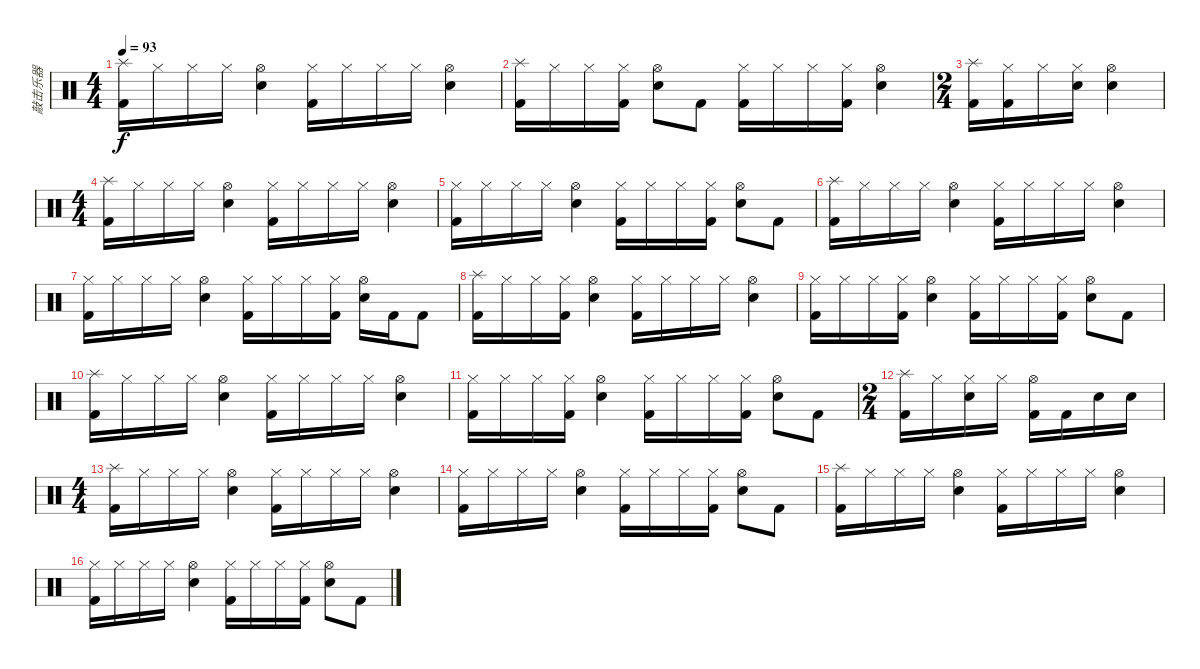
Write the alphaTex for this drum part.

\track ("敲击乐器" "敲击乐器") {instrument percussion}
\staff {score}
\articulation defaults
\ts (4 4)
\tempo 93
\clef neutral
\ks c
("Splash (hit)" "Kick (hit) 2").16{dy f} "Hi-Hat (closed)".16 "Hi-Hat (closed)".16 "Hi-Hat (closed)".16 ("Hi-Hat (open)" "Metronome (bell)").4 ("Hi-Hat (closed)" "Kick (hit) 2").16 "Hi-Hat (closed)".16 "Hi-Hat (closed)".16 "Hi-Hat (closed)".16 ("Hi-Hat (open)" "Metronome (bell)").4 |
("Splash (hit)" "Kick (hit) 2").16 "Hi-Hat (closed)".16 "Hi-Hat (closed)".16 ("Hi-Hat (closed)" "Kick (hit) 2").16 ("Hi-Hat (open)" "Metronome (bell)").8 "Kick (hit) 2".8 ("Hi-Hat (closed)" "Kick (hit) 2").16 "Hi-Hat (closed)".16 "Hi-Hat (closed)".16 ("Hi-Hat (closed)" "Kick (hit) 2").16 ("Hi-Hat (open)" "Metronome (bell)").4 |
\ts (2 4)
("Splash (hit)" "Kick (hit) 2").16 ("Hi-Hat (closed)" "Kick (hit) 2").16 "Hi-Hat (closed)".16 ("Hi-Hat (closed)" "Metronome (bell)").16 ("Hi-Hat (open)" "Metronome (bell)").4 |
\ts (4 4)
("Splash (hit)" "Kick (hit) 2").16 "Hi-Hat (closed)".16 "Hi-Hat (closed)".16 "Hi-Hat (closed)".16 ("Hi-Hat (open)" "Metronome (bell)").4 ("Hi-Hat (closed)" "Kick (hit) 2").16 "Hi-Hat (closed)".16 "Hi-Hat (closed)".16 "Hi-Hat (closed)".16 ("Hi-Hat (open)" "Metronome (bell)").4 |
("Hi-Hat (closed)" "Kick (hit) 2").16 "Hi-Hat (closed)".16 "Hi-Hat (closed)".16 "Hi-Hat (closed)".16 ("Hi-Hat (open)" "Metronome (bell)").4 ("Hi-Hat (closed)" "Kick (hit) 2").16 "Hi-Hat (closed)".16 "Hi-Hat (closed)".16 ("Hi-Hat (closed)" "Kick (hit) 2").16 ("Hi-Hat (open)" "Metronome (bell)").8 "Kick (hit) 2".8 |
("Splash (hit)" "Kick (hit) 2").16 "Hi-Hat (closed)".16 "Hi-Hat (closed)".16 "Hi-Hat (closed)".16 ("Hi-Hat (open)" "Metronome (bell)").4 ("Hi-Hat (closed)" "Kick (hit) 2").16 "Hi-Hat (closed)".16 "Hi-Hat (closed)".16 "Hi-Hat (closed)".16 ("Hi-Hat (open)" "Metronome (bell)").4 |
("Hi-Hat (closed)" "Kick (hit) 2").16 "Hi-Hat (closed)".16 "Hi-Hat (closed)".16 "Hi-Hat (closed)".16 ("Hi-Hat (open)" "Metronome (bell)").4 ("Hi-Hat (closed)" "Kick (hit) 2").16 "Hi-Hat (closed)".16 "Hi-Hat (closed)".16 ("Hi-Hat (closed)" "Kick (hit) 2").16 ("Hi-Hat (open)" "Metronome (bell)").16 "Kick (hit) 2".16 "Kick (hit) 2".8 |
("Splash (hit)" "Kick (hit) 2").16 "Hi-Hat (closed)".16 "Hi-Hat (closed)".16 ("Hi-Hat (closed)" "Kick (hit) 2").16 ("Hi-Hat (open)" "Metronome (bell)").4 ("Hi-Hat (closed)" "Kick (hit) 2").16 "Hi-Hat (closed)".16 "Hi-Hat (closed)".16 "Hi-Hat (closed)".16 ("Hi-Hat (open)" "Metronome (bell)").4 |
("Hi-Hat (closed)" "Kick (hit) 2").16 "Hi-Hat (closed)".16 "Hi-Hat (closed)".16 ("Hi-Hat (closed)" "Kick (hit) 2").16 ("Hi-Hat (open)" "Metronome (bell)").4 ("Hi-Hat (closed)" "Kick (hit) 2").16 "Hi-Hat (closed)".16 "Hi-Hat (closed)".16 ("Hi-Hat (closed)" "Kick (hit) 2").16 ("Hi-Hat (open)" "Metronome (bell)").8 "Kick (hit) 2".8 |
("Splash (hit)" "Kick (hit) 2").16 "Hi-Hat (closed)".16 "Hi-Hat (closed)".16 "Hi-Hat (closed)".16 ("Hi-Hat (open)" "Metronome (bell)").4 ("Hi-Hat (closed)" "Kick (hit) 2").16 "Hi-Hat (closed)".16 "Hi-Hat (closed)".16 "Hi-Hat (closed)".16 ("Hi-Hat (open)" "Metronome (bell)").4 |
("Hi-Hat (closed)" "Kick (hit) 2").16 "Hi-Hat (closed)".16 "Hi-Hat (closed)".16 ("Hi-Hat (closed)" "Kick (hit) 2").16 ("Hi-Hat (open)" "Metronome (bell)").4 ("Hi-Hat (closed)" "Kick (hit) 2").16 "Hi-Hat (closed)".16 "Hi-Hat (closed)".16 ("Hi-Hat (closed)" "Kick (hit) 2").16 ("Hi-Hat (open)" "Metronome (bell)").8 "Kick (hit) 2".8 |
\ts (2 4)
("Splash (hit)" "Kick (hit) 2").16 "Hi-Hat (closed)".16 ("Hi-Hat (closed)" "Metronome (bell)").16 "Hi-Hat (closed)".16 ("Hi-Hat (open)" "Kick (hit) 2").16 "Kick (hit) 2".16 "Metronome (bell)".16 "Metronome (bell)".16 |
\ts (4 4)
("Splash (hit)" "Kick (hit) 2").16 "Hi-Hat (closed)".16 "Hi-Hat (closed)".16 "Hi-Hat (closed)".16 ("Hi-Hat (open)" "Metronome (bell)").4 ("Hi-Hat (closed)" "Kick (hit) 2").16 "Hi-Hat (closed)".16 "Hi-Hat (closed)".16 "Hi-Hat (closed)".16 ("Hi-Hat (open)" "Metronome (bell)").4 |
("Hi-Hat (closed)" "Kick (hit) 2").16 "Hi-Hat (closed)".16 "Hi-Hat (closed)".16 "Hi-Hat (closed)".16 ("Hi-Hat (open)" "Metronome (bell)").4 ("Hi-Hat (closed)" "Kick (hit) 2").16 "Hi-Hat (closed)".16 "Hi-Hat (closed)".16 ("Hi-Hat (closed)" "Kick (hit) 2").16 ("Hi-Hat (open)" "Metronome (bell)").8 "Kick (hit) 2".8 |
("Splash (hit)" "Kick (hit) 2").16 "Hi-Hat (closed)".16 "Hi-Hat (closed)".16 "Hi-Hat (closed)".16 ("Hi-Hat (open)" "Metronome (bell)").4 ("Hi-Hat (closed)" "Kick (hit) 2").16 "Hi-Hat (closed)".16 "Hi-Hat (closed)".16 "Hi-Hat (closed)".16 ("Hi-Hat (open)" "Metronome (bell)").4 |
("Hi-Hat (closed)" "Kick (hit) 2").16 "Hi-Hat (closed)".16 "Hi-Hat (closed)".16 "Hi-Hat (closed)".16 ("Hi-Hat (open)" "Metronome (bell)").4 ("Hi-Hat (closed)" "Kick (hit) 2").16 "Hi-Hat (closed)".16 "Hi-Hat (closed)".16 ("Hi-Hat (closed)" "Kick (hit) 2").16 ("Hi-Hat (open)" "Metronome (bell)").8 "Kick (hit) 2".8
